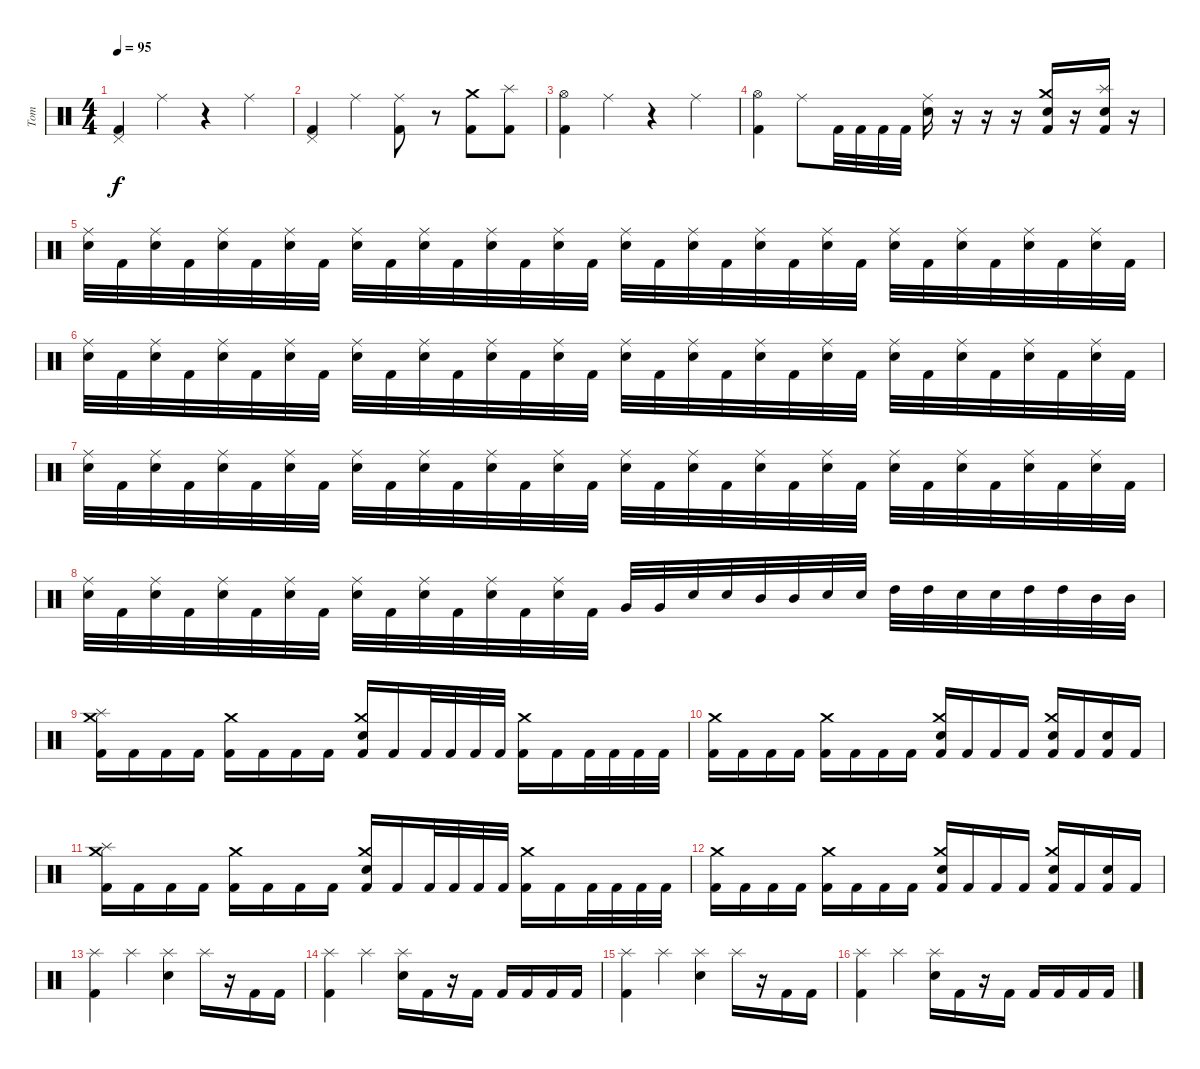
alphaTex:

\track ("Tom" "Tom") {instrument percussion}
\staff {score}
\articulation defaults
\ts (4 4)
\tempo 95
\clef neutral
\ks c
("Pedal Hi-Hat (hit)" "Kick (hit) 2").4{dy f} "Ride (middle)".4 r.4 "Ride (middle)".4 |
("Pedal Hi-Hat (hit)" "Kick (hit) 2").4 "Ride (middle)".4 ("Ride (middle)" "Kick (hit) 2").8 r.8 ("Crash medium (hit)" "Kick (hit) 2").8 ("Splash (hit)" "Kick (hit) 2").8 |
("Hi-Hat (open)" "Kick (hit) 2").4 "Ride (middle)".4 r.4 "Ride (middle)".4 |
("Hi-Hat (open)" "Kick (hit) 2").4 "Ride (middle)".8 "Kick (hit) 2".32 "Kick (hit) 2".32 "Kick (hit) 2".32 "Kick (hit) 2".32 ("Ride (middle)" "Electric Snare (hit)").16 r.16 r.16 r.16 ("Crash medium (hit)" "Electric Snare (hit)" "Kick (hit) 2").16 r.16 ("Splash (hit)" "Electric Snare (hit)" "Kick (hit) 2").16 r.16 |
("Ride (middle)" "Electric Snare (hit)").32 "Kick (hit) 2".32 ("Ride (middle)" "Electric Snare (hit)").32 "Kick (hit) 2".32 ("Ride (middle)" "Electric Snare (hit)").32 "Kick (hit) 2".32 ("Ride (middle)" "Electric Snare (hit)").32 "Kick (hit) 2".32 ("Ride (middle)" "Electric Snare (hit)").32 "Kick (hit) 2".32 ("Ride (middle)" "Electric Snare (hit)").32 "Kick (hit) 2".32 ("Ride (middle)" "Electric Snare (hit)").32 "Kick (hit) 2".32 ("Ride (middle)" "Electric Snare (hit)").32 "Kick (hit) 2".32 ("Ride (middle)" "Electric Snare (hit)").32 "Kick (hit) 2".32 ("Ride (middle)" "Electric Snare (hit)").32 "Kick (hit) 2".32 ("Ride (middle)" "Electric Snare (hit)").32 "Kick (hit) 2".32 ("Ride (middle)" "Electric Snare (hit)").32 "Kick (hit) 2".32 ("Ride (middle)" "Electric Snare (hit)").32 "Kick (hit) 2".32 ("Ride (middle)" "Electric Snare (hit)").32 "Kick (hit) 2".32 ("Ride (middle)" "Electric Snare (hit)").32 "Kick (hit) 2".32 ("Ride (middle)" "Electric Snare (hit)").32 "Kick (hit) 2".32 |
("Ride (middle)" "Electric Snare (hit)").32 "Kick (hit) 2".32 ("Ride (middle)" "Electric Snare (hit)").32 "Kick (hit) 2".32 ("Ride (middle)" "Electric Snare (hit)").32 "Kick (hit) 2".32 ("Ride (middle)" "Electric Snare (hit)").32 "Kick (hit) 2".32 ("Ride (middle)" "Electric Snare (hit)").32 "Kick (hit) 2".32 ("Ride (middle)" "Electric Snare (hit)").32 "Kick (hit) 2".32 ("Ride (middle)" "Electric Snare (hit)").32 "Kick (hit) 2".32 ("Ride (middle)" "Electric Snare (hit)").32 "Kick (hit) 2".32 ("Ride (middle)" "Electric Snare (hit)").32 "Kick (hit) 2".32 ("Ride (middle)" "Electric Snare (hit)").32 "Kick (hit) 2".32 ("Ride (middle)" "Electric Snare (hit)").32 "Kick (hit) 2".32 ("Ride (middle)" "Electric Snare (hit)").32 "Kick (hit) 2".32 ("Ride (middle)" "Electric Snare (hit)").32 "Kick (hit) 2".32 ("Ride (middle)" "Electric Snare (hit)").32 "Kick (hit) 2".32 ("Ride (middle)" "Electric Snare (hit)").32 "Kick (hit) 2".32 ("Ride (middle)" "Electric Snare (hit)").32 "Kick (hit) 2".32 |
("Ride (middle)" "Electric Snare (hit)").32 "Kick (hit) 2".32 ("Ride (middle)" "Electric Snare (hit)").32 "Kick (hit) 2".32 ("Ride (middle)" "Electric Snare (hit)").32 "Kick (hit) 2".32 ("Ride (middle)" "Electric Snare (hit)").32 "Kick (hit) 2".32 ("Ride (middle)" "Electric Snare (hit)").32 "Kick (hit) 2".32 ("Ride (middle)" "Electric Snare (hit)").32 "Kick (hit) 2".32 ("Ride (middle)" "Electric Snare (hit)").32 "Kick (hit) 2".32 ("Ride (middle)" "Electric Snare (hit)").32 "Kick (hit) 2".32 ("Ride (middle)" "Electric Snare (hit)").32 "Kick (hit) 2".32 ("Ride (middle)" "Electric Snare (hit)").32 "Kick (hit) 2".32 ("Ride (middle)" "Electric Snare (hit)").32 "Kick (hit) 2".32 ("Ride (middle)" "Electric Snare (hit)").32 "Kick (hit) 2".32 ("Ride (middle)" "Electric Snare (hit)").32 "Kick (hit) 2".32 ("Ride (middle)" "Electric Snare (hit)").32 "Kick (hit) 2".32 ("Ride (middle)" "Electric Snare (hit)").32 "Kick (hit) 2".32 ("Ride (middle)" "Electric Snare (hit)").32 "Kick (hit) 2".32 |
("Ride (middle)" "Electric Snare (hit)").32 "Kick (hit) 2".32 ("Ride (middle)" "Electric Snare (hit)").32 "Kick (hit) 2".32 ("Ride (middle)" "Electric Snare (hit)").32 "Kick (hit) 2".32 ("Ride (middle)" "Electric Snare (hit)").32 "Kick (hit) 2".32 ("Ride (middle)" "Electric Snare (hit)").32 "Kick (hit) 2".32 ("Ride (middle)" "Electric Snare (hit)").32 "Kick (hit) 2".32 ("Ride (middle)" "Electric Snare (hit)").32 "Kick (hit) 2".32 ("Ride (middle)" "Electric Snare (hit)").32 "Kick (hit) 2".32 "Very Low Tom (hit)".32 "Very Low Tom (hit)".32 "Electric Snare (hit)".32 "Electric Snare (hit)".32 "Mid Tom (hit)".32 "Mid Tom (hit)".32 "Electric Snare (hit)".32 "Electric Snare (hit)".32 "High Tom (hit)".32 "High Tom (hit)".32 "Electric Snare (hit)".32 "Electric Snare (hit)".32 "High Tom (hit)".32 "High Tom (hit)".32 "Mid Tom (hit)".32 "Mid Tom (hit)".32 |
("Crash medium (hit)" "Splash (hit)" "Kick (hit) 2").16 "Kick (hit) 2".16 "Kick (hit) 2".16 "Kick (hit) 2".16 ("Crash medium (hit)" "Kick (hit) 2").16 "Kick (hit) 2".16 "Kick (hit) 2".16 "Kick (hit) 2".16 ("Crash medium (hit)" "Electric Snare (hit)" "Kick (hit) 2").16 "Kick (hit) 2".16 "Kick (hit) 2".32 "Kick (hit) 2".32 "Kick (hit) 2".32 "Kick (hit) 2".32 ("Crash medium (hit)" "Kick (hit) 2").16 "Kick (hit) 2".16 "Kick (hit) 2".32 "Kick (hit) 2".32 "Kick (hit) 2".32 "Kick (hit) 2".32 |
("Crash medium (hit)" "Kick (hit) 2").16 "Kick (hit) 2".16 "Kick (hit) 2".16 "Kick (hit) 2".16 ("Crash medium (hit)" "Kick (hit) 2").16 "Kick (hit) 2".16 "Kick (hit) 2".16 "Kick (hit) 2".16 ("Crash medium (hit)" "Electric Snare (hit)" "Kick (hit) 2").16 "Kick (hit) 2".16 "Kick (hit) 2".16 "Kick (hit) 2".16 ("Crash medium (hit)" "Electric Snare (hit)" "Kick (hit) 2").16 "Kick (hit) 2".16 ("Electric Snare (hit)" "Kick (hit) 2").16 "Kick (hit) 2".16 |
("Crash medium (hit)" "Splash (hit)" "Kick (hit) 2").16 "Kick (hit) 2".16 "Kick (hit) 2".16 "Kick (hit) 2".16 ("Crash medium (hit)" "Kick (hit) 2").16 "Kick (hit) 2".16 "Kick (hit) 2".16 "Kick (hit) 2".16 ("Crash medium (hit)" "Electric Snare (hit)" "Kick (hit) 2").16 "Kick (hit) 2".16 "Kick (hit) 2".32 "Kick (hit) 2".32 "Kick (hit) 2".32 "Kick (hit) 2".32 ("Crash medium (hit)" "Kick (hit) 2").16 "Kick (hit) 2".16 "Kick (hit) 2".32 "Kick (hit) 2".32 "Kick (hit) 2".32 "Kick (hit) 2".32 |
("Crash medium (hit)" "Kick (hit) 2").16 "Kick (hit) 2".16 "Kick (hit) 2".16 "Kick (hit) 2".16 ("Crash medium (hit)" "Kick (hit) 2").16 "Kick (hit) 2".16 "Kick (hit) 2".16 "Kick (hit) 2".16 ("Crash medium (hit)" "Electric Snare (hit)" "Kick (hit) 2").16 "Kick (hit) 2".16 "Kick (hit) 2".16 "Kick (hit) 2".16 ("Crash medium (hit)" "Electric Snare (hit)" "Kick (hit) 2").16 "Kick (hit) 2".16 ("Electric Snare (hit)" "Kick (hit) 2").16 "Kick (hit) 2".16 |
("Splash (hit)" "Kick (hit) 2").4 "Splash (hit)".4 ("Splash (hit)" "Electric Snare (hit)").4 "Splash (hit)".16 r.16 "Kick (hit) 2".16 "Kick (hit) 2".16 |
("Splash (hit)" "Kick (hit) 2").4 "Splash (hit)".4 ("Splash (hit)" "Electric Snare (hit)").16 "Kick (hit) 2".16 r.16 "Kick (hit) 2".16 "Kick (hit) 2".16 "Kick (hit) 2".16 "Kick (hit) 2".16 "Kick (hit) 2".16 |
("Splash (hit)" "Kick (hit) 2").4 "Splash (hit)".4 ("Splash (hit)" "Electric Snare (hit)").4 "Splash (hit)".16 r.16 "Kick (hit) 2".16 "Kick (hit) 2".16 |
("Splash (hit)" "Kick (hit) 2").4 "Splash (hit)".4 ("Splash (hit)" "Electric Snare (hit)").16 "Kick (hit) 2".16 r.16 "Kick (hit) 2".16 "Kick (hit) 2".16 "Kick (hit) 2".16 "Kick (hit) 2".16 "Kick (hit) 2".16
